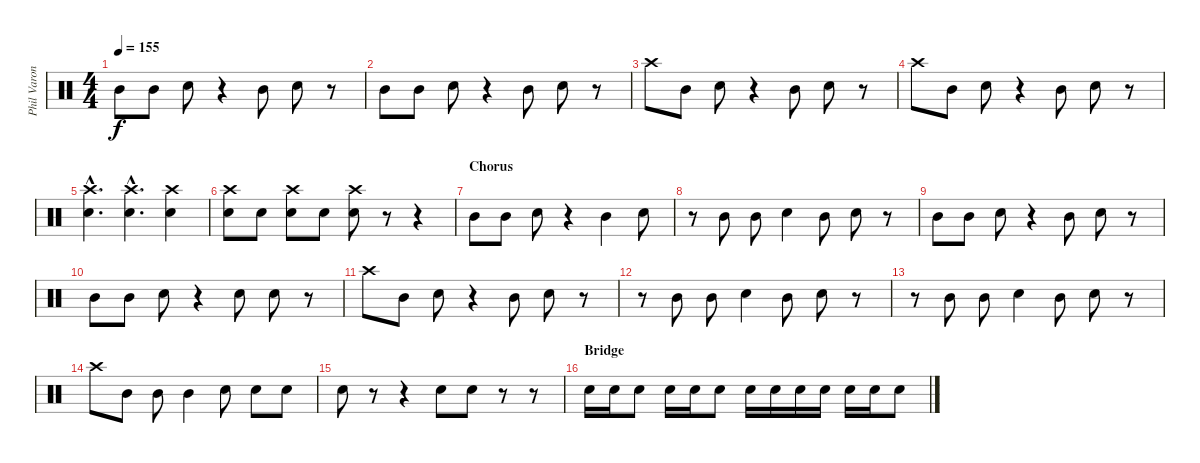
\track ("Phil Varone" "Phil Varon") {instrument percussion}
\staff {score}
\articulation defaults
\ts (4 4)
\tempo 155
\clef neutral
\ks c "Mid Tom (hit)".8{dy f} "Mid Tom (hit)".8 "Snare (hit) 2".8
r.4 "Mid Tom (hit)".8 "Snare (hit) 2".8 r.8 |
"Mid Tom (hit)".8 "Mid Tom (hit)".8 "Snare (hit) 2".8 r.4 "Mid Tom (hit)".8 "Snare (hit) 2".8 r.8 |
"Crash high (hit)".8 "Mid Tom (hit)".8 "Snare (hit) 2".8 r.4 "Mid Tom (hit)".8 "Snare (hit) 2".8 r.8 |
"Crash high (hit)".8 "Mid Tom (hit)".8 "Snare (hit) 2".8 r.4 "Mid Tom (hit)".8 "Snare (hit) 2".8 r.8 |
("Snare (hit) 2"{hac} "Crash high (hit)"{hac}).4{d} ("Snare (hit) 2"{hac} "Crash high (hit)"{hac}).4{d} ("Snare (hit) 2" "Crash high (hit)").4 |
("Snare (hit) 2" "Crash high (hit)").8 "Snare (hit) 2".8 ("Snare (hit) 2" "Crash high (hit)").8 "Snare (hit) 2".8 ("Snare (hit) 2" "Crash high (hit)").8 r.8 r.4 |
\section ("" "Chorus")
"Mid Tom (hit)".8 "Mid Tom (hit)".8 "Snare (hit) 2".8 r.4 "Mid Tom (hit)".4 "Snare (hit) 2".8 |
r.8 "Mid Tom (hit)".8 "Mid Tom (hit)".8 "Snare (hit) 2".4 "Mid Tom (hit)".8 "Snare (hit) 2".8 r.8 |
"Mid Tom (hit)".8 "Mid Tom (hit)".8 "Snare (hit) 2".8 r.4 "Mid Tom (hit)".8 "Snare (hit) 2".8 r.8 |
"Mid Tom (hit)".8 "Mid Tom (hit)".8 "Snare (hit) 2".8 r.4 "Snare (hit) 2".8 "Snare (hit) 2".8 r.8 |
"Crash high (hit)".8 "Mid Tom (hit)".8 "Snare (hit) 2".8 r.4 "Mid Tom (hit)".8 "Snare (hit) 2".8 r.8 |
r.8 "Mid Tom (hit)".8 "Mid Tom (hit)".8 "Snare (hit) 2".4 "Mid Tom (hit)".8 "Snare (hit) 2".8 r.8 |
r.8 "Mid Tom (hit)".8 "Mid Tom (hit)".8 "Snare (hit) 2".4 "Mid Tom (hit)".8 "Snare (hit) 2".8 r.8 |
"Crash high (hit)".8 "Mid Tom (hit)".8 "Mid Tom (hit)".8 "Mid Tom (hit)".4 "Snare (hit) 2".8 "Snare (hit) 2".8 "Snare (hit) 2".8 |
"Snare (hit) 2".8 r.8 r.4 "Snare (hit) 2".8 "Snare (hit) 2".8 r.8 r.8 |
\section ("" "Bridge")
"Snare (hit) 2".16 "Snare (hit) 2".16 "Snare (hit) 2".8 "Snare (hit) 2".16 "Snare (hit) 2".16 "Snare (hit) 2".8 "Snare (hit) 2".16 "Snare (hit) 2".16 "Snare (hit) 2".16 "Snare (hit) 2".16 "Snare (hit) 2".16 "Snare (hit) 2".16 "Snare (hit) 2".8
